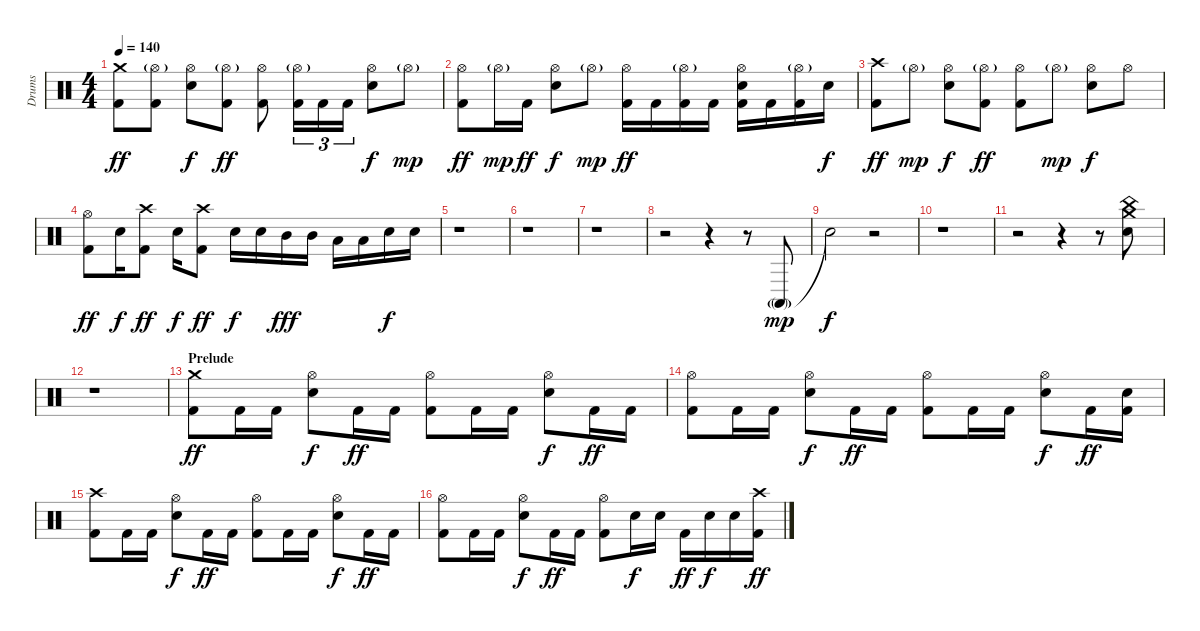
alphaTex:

\track ("Drums" "Drums") {instrument percussion}
\staff {score}
\articulation defaults
\ts (4 4)
\tempo 140
\clef neutral
\ks c
("Crash medium (hit)" "Kick (hit) 2").8{dy ff} ("Hi-Hat (open)"{g} "Kick (hit) 2").8 ("Hi-Hat (open)" "Snare (hit) 2").8{dy f} ("Hi-Hat (open)"{g} "Kick (hit) 2").8{dy ff} ("Hi-Hat (open)" "Kick (hit) 2").8 ("Hi-Hat (open)"{g} "Kick (hit) 2").16{tu (3 2)} "Kick (hit) 2".16{tu (3 2)} "Kick (hit) 2".16{tu (3 2)} ("Hi-Hat (open)" "Snare (hit) 2").8{dy f} "Hi-Hat (open)"{g}.8{dy mp} |
("Hi-Hat (open)" "Kick (hit) 2").8{dy ff} "Hi-Hat (open)"{g}.16{dy mp} "Kick (hit) 2".16{dy ff} ("Hi-Hat (open)" "Snare (hit) 2").8{dy f} "Hi-Hat (open)"{g}.8{dy mp} ("Hi-Hat (open)" "Kick (hit) 2").16{dy ff} "Kick (hit) 2".16 ("Hi-Hat (open)"{g} "Kick (hit) 2").16 "Kick (hit) 2".16 ("Hi-Hat (open)" "Snare (hit) 2" "Kick (hit) 2").16 "Kick (hit) 2".16 ("Hi-Hat (open)"{g} "Kick (hit) 2").16 "Snare (hit) 2".16{dy f} |
("Crash high (hit)" "Kick (hit) 2").8{dy ff} "Hi-Hat (open)"{g}.8{dy mp} ("Hi-Hat (open)" "Snare (hit) 2").8{dy f} ("Hi-Hat (open)"{g} "Kick (hit) 2").8{dy ff} ("Hi-Hat (open)" "Kick (hit) 2").8 "Hi-Hat (open)"{g}.8{dy mp} ("Hi-Hat (open)" "Snare (hit) 2").8{dy f} "Hi-Hat (open)".8 |
("Hi-Hat (open)" "Kick (hit) 2").8{dy ff} "Snare (hit) 2".16{dy f} ("Crash high (hit)" "Kick (hit) 2").8{dy ff} "Snare (hit) 2".16{dy f} ("Crash high (hit)" "Kick (hit) 2").8{dy ff} "Snare (hit) 2".16{dy f} "Snare (hit) 2".16 "Mid Tom (hit)".16{dy fff} "Mid Tom (hit)".16 "Low Tom (hit)".16 "Low Tom (hit)".16 "Snare (hit) 2".16{dy f} "Snare (hit) 2".16 |
r.1 |
r.1 |
r.1 |
r.2 r.4 r.8 "Conga high (mute)"{g}.8{dy mp} |
"Snare (hit)"{t}.2{dy f} r.2 |
r.1 |
r.2 r.4 r.8 ("Crash medium (hit)" "China (hit)" "Snare (hit) 2").8 |
r.1 |
\section ("" "Prelude")
("Crash medium (hit)" "Kick (hit) 2").8{dy ff} "Kick (hit) 2".16 "Kick (hit) 2".16 ("Hi-Hat (open)" "Snare (hit) 2").8{dy f} "Kick (hit) 2".16{dy ff} "Kick (hit) 2".16 ("Hi-Hat (open)" "Kick (hit) 2").8 "Kick (hit) 2".16 "Kick (hit) 2".16 ("Hi-Hat (open)" "Snare (hit) 2").8{dy f} "Kick (hit) 2".16{dy ff} "Kick (hit) 2".16 |
("Hi-Hat (open)" "Kick (hit) 2").8 "Kick (hit) 2".16 "Kick (hit) 2".16 ("Hi-Hat (open)" "Snare (hit) 2").8{dy f} "Kick (hit) 2".16{dy ff} "Kick (hit) 2".16 ("Hi-Hat (open)" "Kick (hit) 2").8 "Kick (hit) 2".16 "Kick (hit) 2".16 ("Hi-Hat (open)" "Snare (hit) 2").8{dy f} "Kick (hit) 2".16{dy ff} ("Snare (hit) 2" "Kick (hit) 2").16 |
("Crash high (hit)" "Kick (hit) 2").8 "Kick (hit) 2".16 "Kick (hit) 2".16 ("Hi-Hat (open)" "Snare (hit) 2").8{dy f} "Kick (hit) 2".16{dy ff} "Kick (hit) 2".16 ("Hi-Hat (open)" "Kick (hit) 2").8 "Kick (hit) 2".16 "Kick (hit) 2".16 ("Hi-Hat (open)" "Snare (hit) 2").8{dy f} "Kick (hit) 2".16{dy ff} "Kick (hit) 2".16 |
("Hi-Hat (open)" "Kick (hit) 2").8 "Kick (hit) 2".16 "Kick (hit) 2".16 ("Hi-Hat (open)" "Snare (hit) 2").8{dy f} "Kick (hit) 2".16{dy ff} "Kick (hit) 2".16 ("Hi-Hat (open)" "Kick (hit) 2").8 "Snare (hit) 2".16{dy f} "Snare (hit) 2".16 "Kick (hit) 2".16{dy ff} "Snare (hit) 2".16{dy f} "Snare (hit) 2".16 ("Crash high (hit)" "Kick (hit) 2").16{dy ff}
